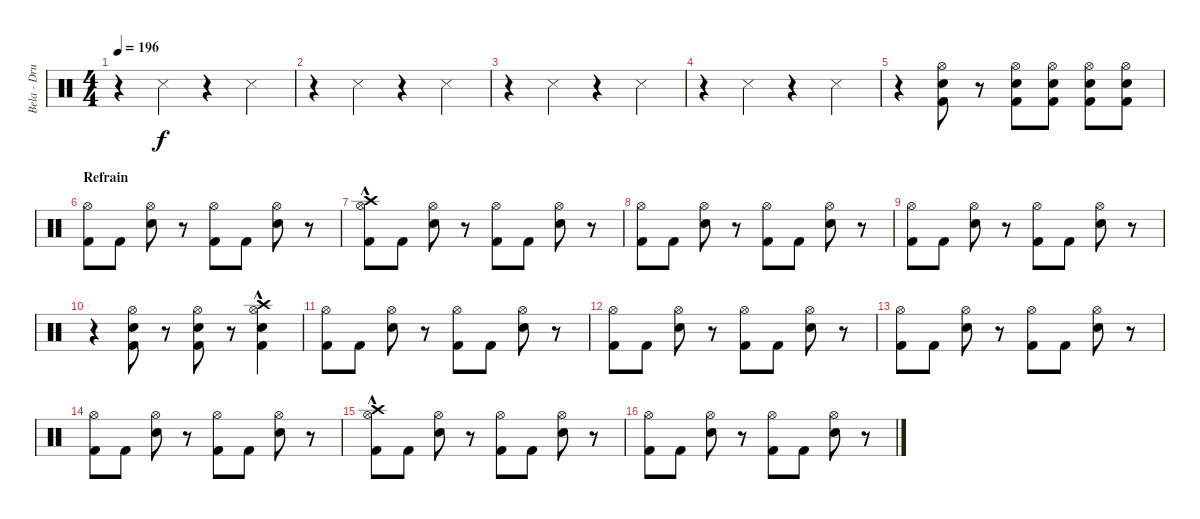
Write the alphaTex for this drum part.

\track ("Bela - Drums" "Bela - Dru") {instrument percussion}
\staff {score}
\articulation defaults
\ts (4 4)
\tempo 196
\clef neutral
\ks c
r.4{dy f} "Snare (side stick) 3".4 r.4 "Snare (side stick) 3".4 |
r.4 "Snare (side stick) 3".4 r.4 "Snare (side stick) 3".4 |
r.4 "Snare (side stick) 3".4 r.4 "Snare (side stick) 3".4 |
r.4 "Snare (side stick) 3".4 r.4 "Snare (side stick) 3".4 |
r.4 ("Electric Snare (hit)" "Kick (hit) 2" "Hi-Hat (open)").8 r.8 ("Electric Snare (hit)" "Kick (hit) 2" "Hi-Hat (open)").8 ("Electric Snare (hit)" "Kick (hit) 2" "Hi-Hat (open)").8 ("Electric Snare (hit)" "Hi-Hat (open)" "Kick (hit) 2").8 ("Electric Snare (hit)" "Kick (hit) 2" "Hi-Hat (open)").8 |
\section ("" "Refrain")
("Hi-Hat (open)" "Kick (hit) 2").8 "Kick (hit) 2".8 ("Hi-Hat (open)" "Electric Snare (hit)").8 r.8 ("Hi-Hat (open)" "Kick (hit) 2").8 "Kick (hit) 2".8 ("Electric Snare (hit)" "Hi-Hat (open)").8 r.8 |
("Crash high (hit)"{hac} "Kick (hit) 2" "Hi-Hat (open)").8 "Kick (hit) 2".8 ("Electric Snare (hit)" "Hi-Hat (open)").8 r.8 ("Hi-Hat (open)" "Kick (hit) 2").8 "Kick (hit) 2".8 ("Electric Snare (hit)" "Hi-Hat (open)").8 r.8 |
("Kick (hit) 2" "Hi-Hat (open)").8 "Kick (hit) 2".8 ("Electric Snare (hit)" "Hi-Hat (open)").8 r.8 ("Hi-Hat (open)" "Kick (hit) 2").8 "Kick (hit) 2".8 ("Electric Snare (hit)" "Hi-Hat (open)").8 r.8 |
("Kick (hit) 2" "Hi-Hat (open)").8 "Kick (hit) 2".8 ("Electric Snare (hit)" "Hi-Hat (open)").8 r.8 ("Hi-Hat (open)" "Kick (hit) 2").8 "Kick (hit) 2".8 ("Electric Snare (hit)" "Hi-Hat (open)").8 r.8 |
r.4 ("Hi-Hat (open)" "Electric Snare (hit)" "Kick (hit) 2").8 r.8 ("Hi-Hat (open)" "Electric Snare (hit)" "Kick (hit) 2").8 r.8 ("Crash high (hit)"{hac} "Hi-Hat (open)" "Electric Snare (hit)" "Kick (hit) 2").4 |
("Kick (hit) 2" "Hi-Hat (open)").8 "Kick (hit) 2".8 ("Electric Snare (hit)" "Hi-Hat (open)").8 r.8 ("Hi-Hat (open)" "Kick (hit) 2").8 "Kick (hit) 2".8 ("Electric Snare (hit)" "Hi-Hat (open)").8 r.8 |
("Kick (hit) 2" "Hi-Hat (open)").8 "Kick (hit) 2".8 ("Electric Snare (hit)" "Hi-Hat (open)").8 r.8 ("Hi-Hat (open)" "Kick (hit) 2").8 "Kick (hit) 2".8 ("Electric Snare (hit)" "Hi-Hat (open)").8 r.8 |
("Kick (hit) 2" "Hi-Hat (open)").8 "Kick (hit) 2".8 ("Electric Snare (hit)" "Hi-Hat (open)").8 r.8 ("Hi-Hat (open)" "Kick (hit) 2").8 "Kick (hit) 2".8 ("Electric Snare (hit)" "Hi-Hat (open)").8 r.8 |
("Hi-Hat (open)" "Kick (hit) 2").8 "Kick (hit) 2".8 ("Hi-Hat (open)" "Electric Snare (hit)").8 r.8 ("Hi-Hat (open)" "Kick (hit) 2").8 "Kick (hit) 2".8 ("Electric Snare (hit)" "Hi-Hat (open)").8 r.8 |
("Crash high (hit)"{hac} "Kick (hit) 2" "Hi-Hat (open)").8 "Kick (hit) 2".8 ("Electric Snare (hit)" "Hi-Hat (open)").8 r.8 ("Hi-Hat (open)" "Kick (hit) 2").8 "Kick (hit) 2".8 ("Electric Snare (hit)" "Hi-Hat (open)").8 r.8 |
("Kick (hit) 2" "Hi-Hat (open)").8 "Kick (hit) 2".8 ("Electric Snare (hit)" "Hi-Hat (open)").8 r.8 ("Hi-Hat (open)" "Kick (hit) 2").8 "Kick (hit) 2".8 ("Electric Snare (hit)" "Hi-Hat (open)").8 r.8
